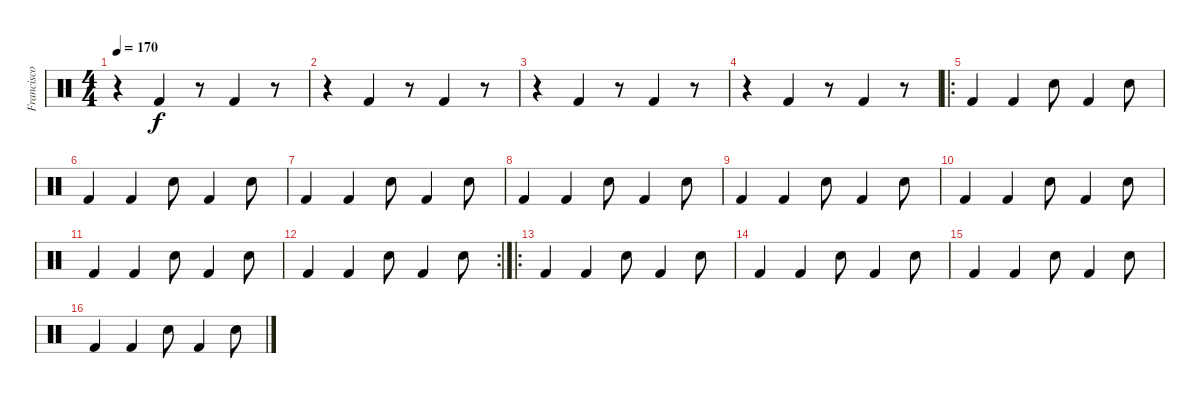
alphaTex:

\track ("Francisco (batería)" "Francisco ") {instrument percussion}
\staff {score}
\articulation defaults
\ts (4 4)
\tempo 170
\clef neutral
\ks c
r.4{dy f} "Kick (hit) 2".4 r.8 "Kick (hit) 2".4 r.8 |
r.4 "Kick (hit) 2".4 r.8 "Kick (hit) 2".4 r.8 |
r.4 "Kick (hit) 2".4 r.8 "Kick (hit) 2".4 r.8 |
r.4 "Kick (hit) 2".4 r.8 "Kick (hit) 2".4 r.8 |
\ro "Kick (hit) 2".4 "Kick (hit) 2".4 "Hand Clap (hit)".8 "Kick (hit) 2".4 "Hand Clap (hit)".8
|
"Kick (hit) 2".4 "Kick (hit) 2".4 "Hand Clap (hit)".8 "Kick (hit) 2".4 "Hand Clap (hit)".8 |
"Kick (hit) 2".4 "Kick (hit) 2".4 "Hand Clap (hit)".8 "Kick (hit) 2".4 "Hand Clap (hit)".8 |
"Kick (hit) 2".4 "Kick (hit) 2".4 "Hand Clap (hit)".8 "Kick (hit) 2".4 "Hand Clap (hit)".8 |
"Kick (hit) 2".4 "Kick (hit) 2".4 "Hand Clap (hit)".8 "Kick (hit) 2".4 "Hand Clap (hit)".8 |
"Kick (hit) 2".4 "Kick (hit) 2".4 "Hand Clap (hit)".8 "Kick (hit) 2".4 "Hand Clap (hit)".8 |
"Kick (hit) 2".4 "Kick (hit) 2".4 "Hand Clap (hit)".8 "Kick (hit) 2".4 "Hand Clap (hit)".8 |
\rc 2 "Kick (hit) 2".4 "Kick (hit) 2".4 "Hand Clap (hit)".8 "Kick (hit) 2".4 "Hand Clap (hit)".8
|
\ro "Kick (hit) 2".4 "Kick (hit) 2".4 "Hand Clap (hit)".8 "Kick (hit) 2".4 "Hand Clap (hit)".8
|
"Kick (hit) 2".4 "Kick (hit) 2".4 "Hand Clap (hit)".8 "Kick (hit) 2".4 "Hand Clap (hit)".8 |
"Kick (hit) 2".4 "Kick (hit) 2".4 "Hand Clap (hit)".8 "Kick (hit) 2".4 "Hand Clap (hit)".8 |
"Kick (hit) 2".4 "Kick (hit) 2".4 "Hand Clap (hit)".8 "Kick (hit) 2".4 "Hand Clap (hit)".8
